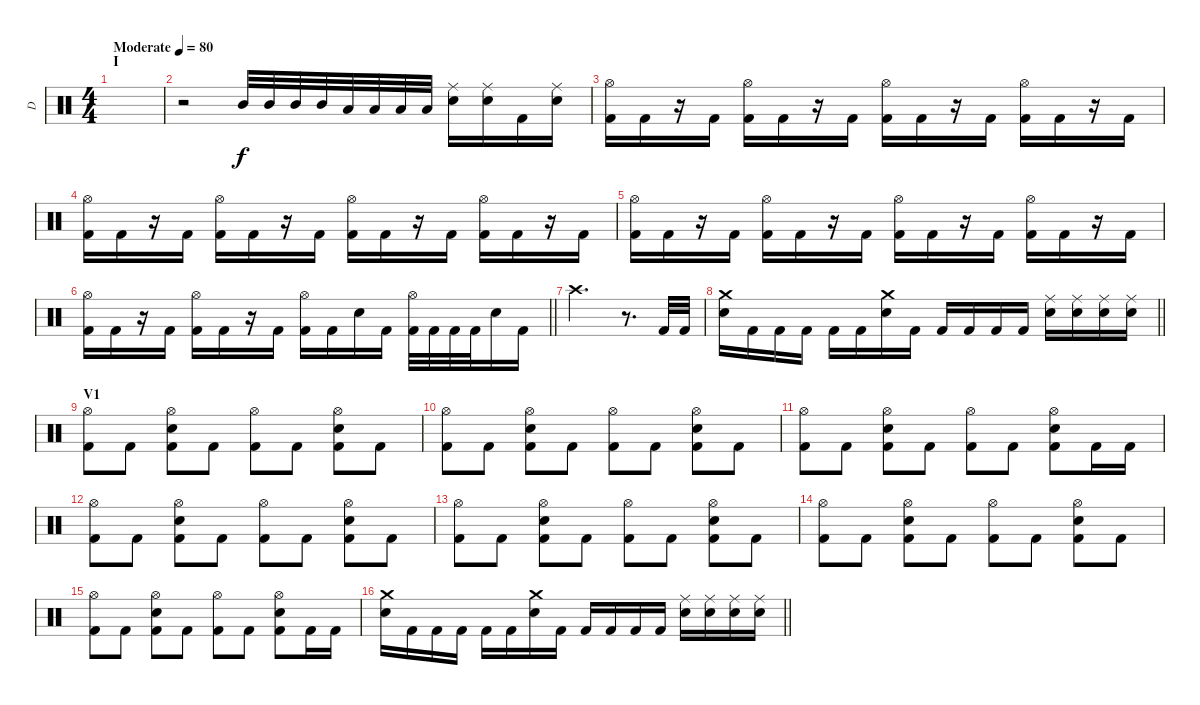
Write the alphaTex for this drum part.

\track ("D" "D") {instrument percussion}
\staff {score}
\articulation defaults
\ts (4 4)
\section ("" "I")
\tempo (80 "Moderate")
\clef neutral
\ks c
|
r.2 "Mid Tom (hit)".32 "Mid Tom (hit)".32 "Mid Tom (hit)".32 "Mid Tom (hit)".32 "Low Tom (hit)".32 "Low Tom (hit)".32 "Low Tom (hit)".32 "Low Tom (hit)".32 ("Ride (middle)" "Electric Snare (hit)").16 ("Ride (middle)" "Electric Snare (hit)").16 "Kick (hit) 2".16 ("Ride (middle)" "Electric Snare (hit)").16 |
("Hi-Hat (open)" "Kick (hit) 2").16 "Kick (hit) 2".16 r.16 "Kick (hit) 2".16 ("Hi-Hat (open)" "Kick (hit) 2").16 "Kick (hit) 2".16 r.16 "Kick (hit) 2".16 ("Hi-Hat (open)" "Kick (hit) 2").16 "Kick (hit) 2".16 r.16 "Kick (hit) 2".16 ("Hi-Hat (open)" "Kick (hit) 2").16 "Kick (hit) 2".16 r.16 "Kick (hit) 2".16 |
("Hi-Hat (open)" "Kick (hit) 2").16 "Kick (hit) 2".16 r.16 "Kick (hit) 2".16 ("Hi-Hat (open)" "Kick (hit) 2").16 "Kick (hit) 2".16 r.16 "Kick (hit) 2".16 ("Hi-Hat (open)" "Kick (hit) 2").16 "Kick (hit) 2".16 r.16 "Kick (hit) 2".16 ("Hi-Hat (open)" "Kick (hit) 2").16 "Kick (hit) 2".16 r.16 "Kick (hit) 2".16 |
("Hi-Hat (open)" "Kick (hit) 2").16 "Kick (hit) 2".16 r.16 "Kick (hit) 2".16 ("Hi-Hat (open)" "Kick (hit) 2").16 "Kick (hit) 2".16 r.16 "Kick (hit) 2".16 ("Hi-Hat (open)" "Kick (hit) 2").16 "Kick (hit) 2".16 r.16 "Kick (hit) 2".16 ("Hi-Hat (open)" "Kick (hit) 2").16 "Kick (hit) 2".16 r.16 "Kick (hit) 2".16 |
\barLineRight lightlight
("Hi-Hat (open)" "Kick (hit) 2").16 "Kick (hit) 2".16 r.16 "Kick (hit) 2".16 ("Hi-Hat (open)" "Kick (hit) 2").16 "Kick (hit) 2".16 r.16 "Kick (hit) 2".16 ("Hi-Hat (open)" "Kick (hit) 2").16 "Kick (hit) 2".16 "Electric Snare (hit)".16 "Kick (hit) 2".16 ("Hi-Hat (open)" "Kick (hit) 2").32 "Kick (hit) 2".32 "Kick (hit) 2".32 "Kick (hit) 2".32 "Electric Snare (hit)".16 "Kick (hit) 2".16 |
\section ("" "")
"Crash high (hit)".2{d} r.8{d} "Kick (hit) 2".32 "Kick (hit) 2".32 |
\barLineRight lightlight
("Crash medium (hit)" "Electric Snare (hit)").16 "Kick (hit) 2".16 "Kick (hit) 2".16 "Kick (hit) 2".16 "Kick (hit) 2".16 "Kick (hit) 2".16 ("Crash medium (hit)" "Electric Snare (hit)").16 "Kick (hit) 2".16 "Kick (hit) 2".16 "Kick (hit) 2".16 "Kick (hit) 2".16 "Kick (hit) 2".16 ("Ride (middle)" "Electric Snare (hit)").16 ("Ride (middle)" "Electric Snare (hit)").16 ("Ride (middle)" "Electric Snare (hit)").16 ("Ride (middle)" "Electric Snare (hit)").16 |
\section ("" "V1")
("Hi-Hat (open)" "Kick (hit) 2").8 "Kick (hit) 2".8 ("Hi-Hat (open)" "Electric Snare (hit)" "Kick (hit) 2").8 "Kick (hit) 2".8 ("Hi-Hat (open)" "Kick (hit) 2").8 "Kick (hit) 2".8 ("Hi-Hat (open)" "Electric Snare (hit)" "Kick (hit) 2").8 "Kick (hit) 2".8 |
("Hi-Hat (open)" "Kick (hit) 2").8 "Kick (hit) 2".8 ("Hi-Hat (open)" "Electric Snare (hit)" "Kick (hit) 2").8 "Kick (hit) 2".8 ("Hi-Hat (open)" "Kick (hit) 2").8 "Kick (hit) 2".8 ("Hi-Hat (open)" "Electric Snare (hit)" "Kick (hit) 2").8 "Kick (hit) 2".8 |
("Hi-Hat (open)" "Kick (hit) 2").8 "Kick (hit) 2".8 ("Hi-Hat (open)" "Electric Snare (hit)" "Kick (hit) 2").8 "Kick (hit) 2".8 ("Hi-Hat (open)" "Kick (hit) 2").8 "Kick (hit) 2".8 ("Hi-Hat (open)" "Electric Snare (hit)" "Kick (hit) 2").8 "Kick (hit) 2".16 "Kick (hit) 2".16 |
("Hi-Hat (open)" "Kick (hit) 2").8 "Kick (hit) 2".8 ("Hi-Hat (open)" "Electric Snare (hit)" "Kick (hit) 2").8 "Kick (hit) 2".8 ("Hi-Hat (open)" "Kick (hit) 2").8 "Kick (hit) 2".8 ("Hi-Hat (open)" "Electric Snare (hit)" "Kick (hit) 2").8 "Kick (hit) 2".8 |
("Hi-Hat (open)" "Kick (hit) 2").8 "Kick (hit) 2".8 ("Hi-Hat (open)" "Electric Snare (hit)" "Kick (hit) 2").8 "Kick (hit) 2".8 ("Hi-Hat (open)" "Kick (hit) 2").8 "Kick (hit) 2".8 ("Hi-Hat (open)" "Electric Snare (hit)" "Kick (hit) 2").8 "Kick (hit) 2".8 |
("Hi-Hat (open)" "Kick (hit) 2").8 "Kick (hit) 2".8 ("Hi-Hat (open)" "Electric Snare (hit)" "Kick (hit) 2").8 "Kick (hit) 2".8 ("Hi-Hat (open)" "Kick (hit) 2").8 "Kick (hit) 2".8 ("Hi-Hat (open)" "Electric Snare (hit)" "Kick (hit) 2").8 "Kick (hit) 2".8 |
("Hi-Hat (open)" "Kick (hit) 2").8 "Kick (hit) 2".8 ("Hi-Hat (open)" "Electric Snare (hit)" "Kick (hit) 2").8 "Kick (hit) 2".8 ("Hi-Hat (open)" "Kick (hit) 2").8 "Kick (hit) 2".8 ("Hi-Hat (open)" "Electric Snare (hit)" "Kick (hit) 2").8 "Kick (hit) 2".16 "Kick (hit) 2".16 |
\barLineRight lightlight
("Crash medium (hit)" "Electric Snare (hit)").16 "Kick (hit) 2".16 "Kick (hit) 2".16 "Kick (hit) 2".16 "Kick (hit) 2".16 "Kick (hit) 2".16 ("Crash medium (hit)" "Electric Snare (hit)").16 "Kick (hit) 2".16 "Kick (hit) 2".16 "Kick (hit) 2".16 "Kick (hit) 2".16 "Kick (hit) 2".16 ("Ride (middle)" "Electric Snare (hit)").16 ("Ride (middle)" "Electric Snare (hit)").16 ("Ride (middle)" "Electric Snare (hit)").16 ("Ride (middle)" "Electric Snare (hit)").16
